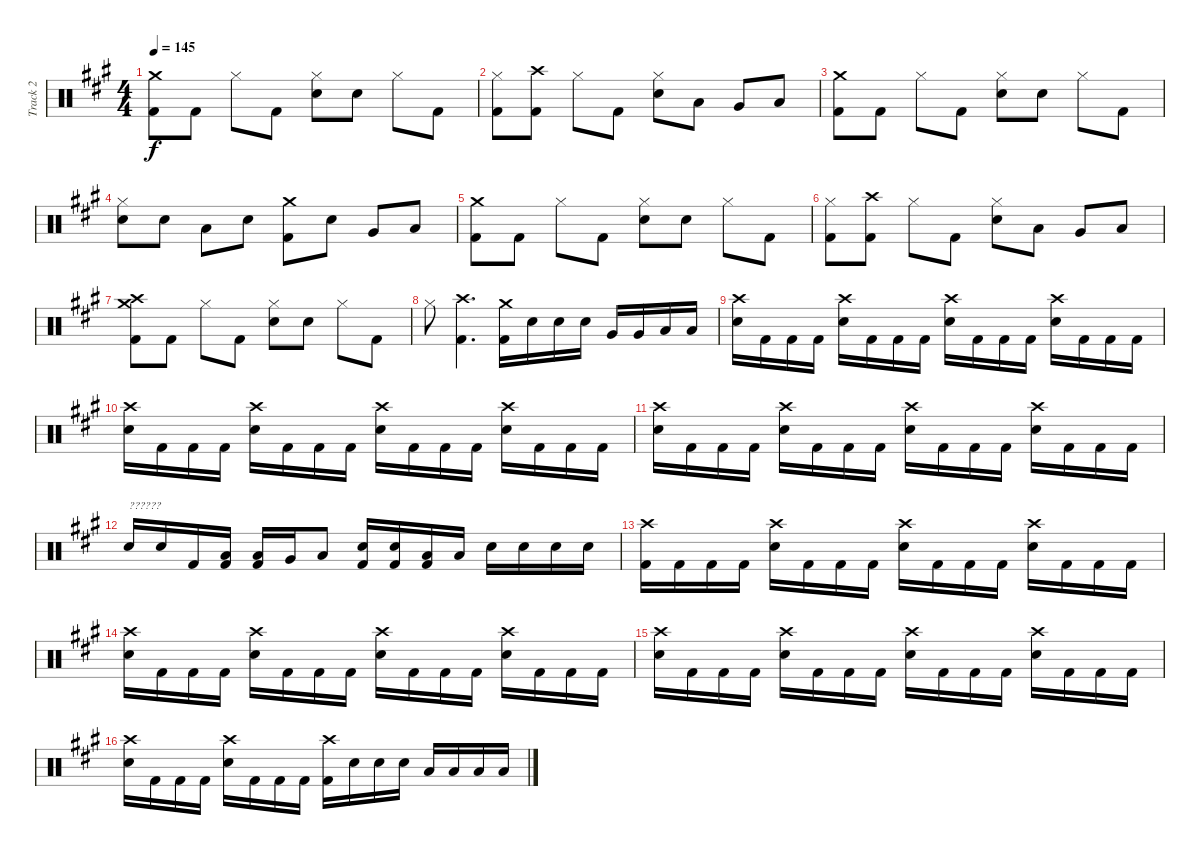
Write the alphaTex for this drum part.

\track ("Track 2" "Track 2") {instrument percussion}
\staff {score}
\articulation defaults
\ts (4 4)
\tempo 145
\clef neutral
\ks a
("Crash medium (hit)" "Kick (hit) 2").8{dy f} "Kick (hit) 2".8 "Hi-Hat (closed)".8 "Kick (hit) 2".8 ("Hi-Hat (closed)" "Snare (hit) 2").8 "Snare (hit) 2".8 "Hi-Hat (closed)".8 "Kick (hit) 2".8 |
("Hi-Hat (closed)" "Kick (hit) 2").8 ("Crash high (hit)" "Kick (hit) 2").8 "Hi-Hat (closed)".8 "Kick (hit) 2".8 ("Hi-Hat (closed)" "Snare (hit) 2").8 "Low Tom (hit)".8 "Very Low Tom (hit)".8 "Low Floor Tom (hit)".8 |
("Crash medium (hit)" "Kick (hit) 2").8 "Kick (hit) 2".8 "Hi-Hat (closed)".8 "Kick (hit) 2".8 ("Hi-Hat (closed)" "Snare (hit) 2").8 "Snare (hit) 2".8 "Hi-Hat (closed)".8 "Kick (hit) 2".8 |
("Hi-Hat (closed)" "Snare (hit) 2").8 "Snare (hit) 2".8 "Low Tom (hit)".8 "Snare (hit) 2".8 ("Crash medium (hit)" "Kick (hit) 2").8 "Snare (hit) 2".8 "Very Low Tom (hit)".8 "Low Floor Tom (hit)".8 |
("Crash medium (hit)" "Kick (hit) 2").8 "Kick (hit) 2".8 "Hi-Hat (closed)".8 "Kick (hit) 2".8 ("Hi-Hat (closed)" "Snare (hit) 2").8 "Snare (hit) 2".8 "Hi-Hat (closed)".8 "Kick (hit) 2".8 |
("Hi-Hat (closed)" "Kick (hit) 2").8 ("Crash high (hit)" "Kick (hit) 2").8 "Hi-Hat (closed)".8 "Kick (hit) 2".8 ("Hi-Hat (closed)" "Snare (hit) 2").8 "Low Tom (hit)".8 "Very Low Tom (hit)".8 "Low Floor Tom (hit)".8 |
("Crash high (hit)" "Crash medium (hit)" "Kick (hit) 2").8 "Kick (hit) 2".8 "Hi-Hat (closed)".8 "Kick (hit) 2".8 ("Hi-Hat (closed)" "Snare (hit) 2").8 "Snare (hit) 2".8 "Hi-Hat (closed)".8 "Kick (hit) 2".8 |
"Hi-Hat (closed)".8 ("Crash high (hit)" "Kick (hit) 2").4{d} ("Crash medium (hit)" "Kick (hit) 2").16 "Snare (hit) 2".16 "Snare (hit) 2".16 "Snare (hit) 2".16 "Very Low Tom (hit)".16 "Very Low Tom (hit)".16 "Low Floor Tom (hit)".16 "Low Floor Tom (hit)".16 |
("Crash high (hit)" "Snare (hit) 2").16 "Kick (hit) 2".16 "Kick (hit) 2".16 "Kick (hit) 2".16 ("Crash high (hit)" "Snare (hit) 2").16 "Kick (hit) 2".16 "Kick (hit) 2".16 "Kick (hit) 2".16 ("Crash high (hit)" "Snare (hit) 2").16 "Kick (hit) 2".16 "Kick (hit) 2".16 "Kick (hit) 2".16 ("Crash high (hit)" "Snare (hit) 2").16 "Kick (hit) 2".16 "Kick (hit) 2".16 "Kick (hit) 2".16 |
("Crash high (hit)" "Snare (hit) 2").16 "Kick (hit) 2".16 "Kick (hit) 2".16 "Kick (hit) 2".16 ("Crash high (hit)" "Snare (hit) 2").16 "Kick (hit) 2".16 "Kick (hit) 2".16 "Kick (hit) 2".16 ("Crash high (hit)" "Snare (hit) 2").16 "Kick (hit) 2".16 "Kick (hit) 2".16 "Kick (hit) 2".16 ("Crash high (hit)" "Snare (hit) 2").16 "Kick (hit) 2".16 "Kick (hit) 2".16 "Kick (hit) 2".16 |
("Crash high (hit)" "Snare (hit) 2").16 "Kick (hit) 2".16 "Kick (hit) 2".16 "Kick (hit) 2".16 ("Crash high (hit)" "Snare (hit) 2").16 "Kick (hit) 2".16 "Kick (hit) 2".16 "Kick (hit) 2".16 ("Crash high (hit)" "Snare (hit) 2").16 "Kick (hit) 2".16 "Kick (hit) 2".16 "Kick (hit) 2".16 ("Crash high (hit)" "Snare (hit) 2").16 "Kick (hit) 2".16 "Kick (hit) 2".16 "Kick (hit) 2".16 |
"Snare (hit) 2".16{txt "??????"} "Snare (hit) 2".16 "Kick (hit) 2".16 ("Low Tom (hit)" "Kick (hit) 2").16 ("Low Tom (hit)" "Kick (hit) 2").16 "Very Low Tom (hit)".16 "Low Floor Tom (hit)".8 ("Snare (hit) 2" "Kick (hit) 2").16 ("Snare (hit) 2" "Kick (hit) 2").16 ("Low Floor Tom (hit)" "Kick (hit) 2").16 "Low Floor Tom (hit)".16 "Snare (hit) 2".16 "Snare (hit) 2".16 "Snare (hit) 2".16 "Snare (hit) 2".16 |
("Crash high (hit)" "Kick (hit) 2").16 "Kick (hit) 2".16 "Kick (hit) 2".16 "Kick (hit) 2".16 ("Crash high (hit)" "Snare (hit) 2").16 "Kick (hit) 2".16 "Kick (hit) 2".16 "Kick (hit) 2".16 ("Crash high (hit)" "Snare (hit) 2").16 "Kick (hit) 2".16 "Kick (hit) 2".16 "Kick (hit) 2".16 ("Crash high (hit)" "Snare (hit) 2").16 "Kick (hit) 2".16 "Kick (hit) 2".16 "Kick (hit) 2".16 |
("Crash high (hit)" "Snare (hit) 2").16 "Kick (hit) 2".16 "Kick (hit) 2".16 "Kick (hit) 2".16 ("Crash high (hit)" "Snare (hit) 2").16 "Kick (hit) 2".16 "Kick (hit) 2".16 "Kick (hit) 2".16 ("Crash high (hit)" "Snare (hit) 2").16 "Kick (hit) 2".16 "Kick (hit) 2".16 "Kick (hit) 2".16 ("Crash high (hit)" "Snare (hit) 2").16 "Kick (hit) 2".16 "Kick (hit) 2".16 "Kick (hit) 2".16 |
("Crash high (hit)" "Snare (hit) 2").16 "Kick (hit) 2".16 "Kick (hit) 2".16 "Kick (hit) 2".16 ("Crash high (hit)" "Snare (hit) 2").16 "Kick (hit) 2".16 "Kick (hit) 2".16 "Kick (hit) 2".16 ("Crash high (hit)" "Snare (hit) 2").16 "Kick (hit) 2".16 "Kick (hit) 2".16 "Kick (hit) 2".16 ("Crash high (hit)" "Snare (hit) 2").16 "Kick (hit) 2".16 "Kick (hit) 2".16 "Kick (hit) 2".16 |
("Crash high (hit)" "Snare (hit) 2").16 "Kick (hit) 2".16 "Kick (hit) 2".16 "Kick (hit) 2".16 ("Crash high (hit)" "Snare (hit) 2").16 "Kick (hit) 2".16 "Kick (hit) 2".16 "Kick (hit) 2".16 ("Crash high (hit)" "Kick (hit) 2").16 "Snare (hit) 2".16 "Snare (hit) 2".16 "Snare (hit) 2".16 "Low Floor Tom (hit)".16 "Low Floor Tom (hit)".16 "Low Floor Tom (hit)".16 "Low Floor Tom (hit)".16
